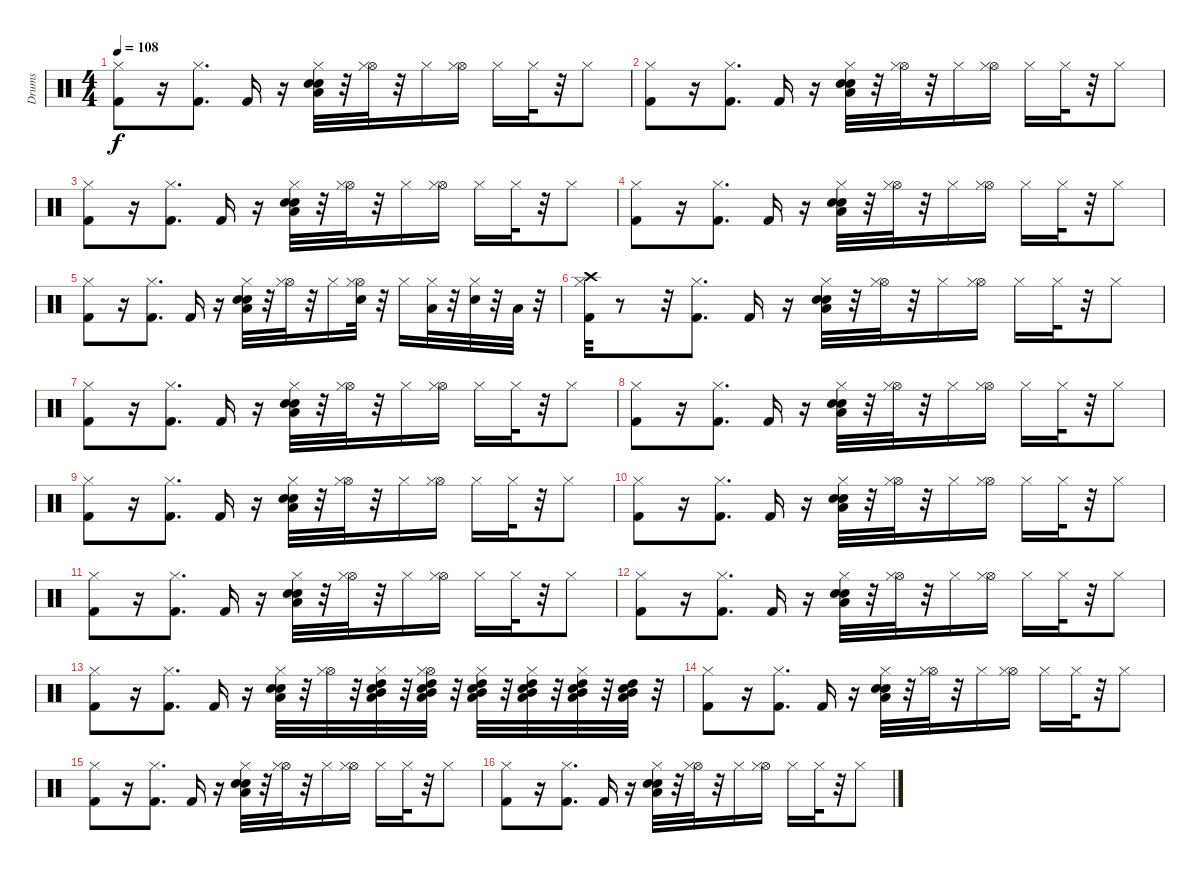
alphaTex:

\track ("Drums" "Drums") {instrument percussion}
\staff {score}
\articulation defaults
\ts (4 4)
\tempo 108
\clef neutral
\ks c
("Hi-Hat (closed)" "Kick (hit) 2").8{dy f} r.16 ("Kick (hit) 2" "Hi-Hat (closed)").8{d} "Kick (hit) 2".16 r.16 ("Low Floor Tom (hit)" "Electric Snare (hit)" "Snare (hit) 2" "Hi-Hat (closed)").32 r.32 ("Hi-Hat (open)" "Hi-Hat (closed)").32 r.32 "Hi-Hat (closed)".16 ("Hi-Hat (open)" "Hi-Hat (closed)").16 "Hi-Hat (closed)".16 "Hi-Hat (closed)".32 r.32 "Hi-Hat (closed)".8 |
("Hi-Hat (closed)" "Kick (hit) 2").8 r.16 ("Kick (hit) 2" "Hi-Hat (closed)").8{d} "Kick (hit) 2".16 r.16 ("Low Floor Tom (hit)" "Electric Snare (hit)" "Snare (hit) 2" "Hi-Hat (closed)").32 r.32 ("Hi-Hat (open)" "Hi-Hat (closed)").32 r.32 "Hi-Hat (closed)".16 ("Hi-Hat (open)" "Hi-Hat (closed)").16 "Hi-Hat (closed)".16 "Hi-Hat (closed)".32 r.32 "Hi-Hat (closed)".8 |
("Hi-Hat (closed)" "Kick (hit) 2").8 r.16 ("Kick (hit) 2" "Hi-Hat (closed)").8{d} "Kick (hit) 2".16 r.16 ("Low Floor Tom (hit)" "Electric Snare (hit)" "Snare (hit) 2" "Hi-Hat (closed)").32 r.32 ("Hi-Hat (open)" "Hi-Hat (closed)").32 r.32 "Hi-Hat (closed)".16 ("Hi-Hat (open)" "Hi-Hat (closed)").16 "Hi-Hat (closed)".16 "Hi-Hat (closed)".32 r.32 "Hi-Hat (closed)".8 |
("Hi-Hat (closed)" "Kick (hit) 2").8 r.16 ("Kick (hit) 2" "Hi-Hat (closed)").8{d} "Kick (hit) 2".16 r.16 ("Low Floor Tom (hit)" "Electric Snare (hit)" "Snare (hit) 2" "Hi-Hat (closed)").32 r.32 ("Hi-Hat (open)" "Hi-Hat (closed)").32 r.32 "Hi-Hat (closed)".16 ("Hi-Hat (open)" "Hi-Hat (closed)").16 "Hi-Hat (closed)".16 "Hi-Hat (closed)".32 r.32 "Hi-Hat (closed)".8 |
("Hi-Hat (closed)" "Kick (hit) 2").8 r.16 ("Kick (hit) 2" "Hi-Hat (closed)").8{d} "Kick (hit) 2".16 r.16 ("Low Floor Tom (hit)" "Electric Snare (hit)" "Snare (hit) 2" "Hi-Hat (closed)").32 r.32 ("Hi-Hat (open)" "Hi-Hat (closed)").32 r.32 "Hi-Hat (closed)".16 ("Hi-Hat (open)" "Hi-Hat (closed)" "Electric Snare (hit)").32 r.32 "Hi-Hat (closed)".16 ("Low Floor Tom (hit)" "Hi-Hat (closed)").32 r.32 ("Hi-Hat (closed)" "Electric Snare (hit)").32 r.32 "Low Floor Tom (hit)".32 r.32 |
("Hi-Hat (closed)" "Kick (hit) 2" "Crash high (hit)").32 r.8 r.32 ("Kick (hit) 2" "Hi-Hat (closed)").8{d} "Kick (hit) 2".16 r.16 ("Low Floor Tom (hit)" "Electric Snare (hit)" "Snare (hit) 2" "Hi-Hat (closed)").32 r.32 ("Hi-Hat (open)" "Hi-Hat (closed)").32 r.32 "Hi-Hat (closed)".16 ("Hi-Hat (open)" "Hi-Hat (closed)").16 "Hi-Hat (closed)".16 "Hi-Hat (closed)".32 r.32 "Hi-Hat (closed)".8 |
("Hi-Hat (closed)" "Kick (hit) 2").8 r.16 ("Kick (hit) 2" "Hi-Hat (closed)").8{d} "Kick (hit) 2".16 r.16 ("Low Floor Tom (hit)" "Electric Snare (hit)" "Snare (hit) 2" "Hi-Hat (closed)").32 r.32 ("Hi-Hat (open)" "Hi-Hat (closed)").32 r.32 "Hi-Hat (closed)".16 ("Hi-Hat (open)" "Hi-Hat (closed)").16 "Hi-Hat (closed)".16 "Hi-Hat (closed)".32 r.32 "Hi-Hat (closed)".8 |
("Hi-Hat (closed)" "Kick (hit) 2").8 r.16 ("Kick (hit) 2" "Hi-Hat (closed)").8{d} "Kick (hit) 2".16 r.16 ("Low Floor Tom (hit)" "Electric Snare (hit)" "Snare (hit) 2" "Hi-Hat (closed)").32 r.32 ("Hi-Hat (open)" "Hi-Hat (closed)").32 r.32 "Hi-Hat (closed)".16 ("Hi-Hat (open)" "Hi-Hat (closed)").16 "Hi-Hat (closed)".16 "Hi-Hat (closed)".32 r.32 "Hi-Hat (closed)".8 |
("Hi-Hat (closed)" "Kick (hit) 2").8 r.16 ("Kick (hit) 2" "Hi-Hat (closed)").8{d} "Kick (hit) 2".16 r.16 ("Low Floor Tom (hit)" "Electric Snare (hit)" "Snare (hit) 2" "Hi-Hat (closed)").32 r.32 ("Hi-Hat (open)" "Hi-Hat (closed)").32 r.32 "Hi-Hat (closed)".16 ("Hi-Hat (open)" "Hi-Hat (closed)").16 "Hi-Hat (closed)".16 "Hi-Hat (closed)".32 r.32 "Hi-Hat (closed)".8 |
("Hi-Hat (closed)" "Kick (hit) 2").8 r.16 ("Kick (hit) 2" "Hi-Hat (closed)").8{d} "Kick (hit) 2".16 r.16 ("Low Floor Tom (hit)" "Electric Snare (hit)" "Snare (hit) 2" "Hi-Hat (closed)").32 r.32 ("Hi-Hat (open)" "Hi-Hat (closed)").32 r.32 "Hi-Hat (closed)".16 ("Hi-Hat (open)" "Hi-Hat (closed)").16 "Hi-Hat (closed)".16 "Hi-Hat (closed)".32 r.32 "Hi-Hat (closed)".8 |
("Hi-Hat (closed)" "Kick (hit) 2").8 r.16 ("Kick (hit) 2" "Hi-Hat (closed)").8{d} "Kick (hit) 2".16 r.16 ("Low Floor Tom (hit)" "Electric Snare (hit)" "Snare (hit) 2" "Hi-Hat (closed)").32 r.32 ("Hi-Hat (open)" "Hi-Hat (closed)").32 r.32 "Hi-Hat (closed)".16 ("Hi-Hat (open)" "Hi-Hat (closed)").16 "Hi-Hat (closed)".16 "Hi-Hat (closed)".32 r.32 "Hi-Hat (closed)".8 |
("Hi-Hat (closed)" "Kick (hit) 2").8 r.16 ("Kick (hit) 2" "Hi-Hat (closed)").8{d} "Kick (hit) 2".16 r.16 ("Low Floor Tom (hit)" "Electric Snare (hit)" "Snare (hit) 2" "Hi-Hat (closed)").32 r.32 ("Hi-Hat (open)" "Hi-Hat (closed)").32 r.32 "Hi-Hat (closed)".16 ("Hi-Hat (open)" "Hi-Hat (closed)").16 "Hi-Hat (closed)".16 "Hi-Hat (closed)".32 r.32 "Hi-Hat (closed)".8 |
("Hi-Hat (closed)" "Kick (hit) 2").8 r.16 ("Kick (hit) 2" "Hi-Hat (closed)").8{d} "Kick (hit) 2".16 r.16 ("Low Floor Tom (hit)" "Electric Snare (hit)" "Snare (hit) 2" "Hi-Hat (closed)").32 r.32 ("Hi-Hat (open)" "Hi-Hat (closed)").32 r.32 ("Hi-Hat (closed)" "Electric Snare (hit)" "Mid Tom (hit)" "High Tom (hit)" "Low Tom (hit)").32 r.32 ("Hi-Hat (open)" "Hi-Hat (closed)" "Electric Snare (hit)" "Mid Tom (hit)" "High Tom (hit)" "Low Tom (hit)").32 r.32 ("Hi-Hat (closed)" "Electric Snare (hit)" "High Tom (hit)" "Mid Tom (hit)" "Low Tom (hit)").32 r.32 ("Electric Snare (hit)" "High Tom (hit)" "Mid Tom (hit)" "Low Tom (hit)" "Hi-Hat (closed)").32 r.32 ("Hi-Hat (closed)" "Electric Snare (hit)" "High Tom (hit)" "Mid Tom (hit)" "Low Tom (hit)").32 r.32 ("Electric Snare (hit)" "High Tom (hit)" "Mid Tom (hit)" "Low Tom (hit)").32 r.32 |
("Hi-Hat (closed)" "Kick (hit) 2").8 r.16 ("Kick (hit) 2" "Hi-Hat (closed)").8{d} "Kick (hit) 2".16 r.16 ("Low Floor Tom (hit)" "Electric Snare (hit)" "Snare (hit) 2" "Hi-Hat (closed)").32 r.32 ("Hi-Hat (open)" "Hi-Hat (closed)").32 r.32 "Hi-Hat (closed)".16 ("Hi-Hat (open)" "Hi-Hat (closed)").16 "Hi-Hat (closed)".16 "Hi-Hat (closed)".32 r.32 "Hi-Hat (closed)".8 |
("Hi-Hat (closed)" "Kick (hit) 2").8 r.16 ("Kick (hit) 2" "Hi-Hat (closed)").8{d} "Kick (hit) 2".16 r.16 ("Low Floor Tom (hit)" "Electric Snare (hit)" "Snare (hit) 2" "Hi-Hat (closed)").32 r.32 ("Hi-Hat (open)" "Hi-Hat (closed)").32 r.32 "Hi-Hat (closed)".16 ("Hi-Hat (open)" "Hi-Hat (closed)").16 "Hi-Hat (closed)".16 "Hi-Hat (closed)".32 r.32 "Hi-Hat (closed)".8 |
("Hi-Hat (closed)" "Kick (hit) 2").8 r.16 ("Kick (hit) 2" "Hi-Hat (closed)").8{d} "Kick (hit) 2".16 r.16 ("Low Floor Tom (hit)" "Electric Snare (hit)" "Snare (hit) 2" "Hi-Hat (closed)").32 r.32 ("Hi-Hat (open)" "Hi-Hat (closed)").32 r.32 "Hi-Hat (closed)".16 ("Hi-Hat (open)" "Hi-Hat (closed)").16 "Hi-Hat (closed)".16 "Hi-Hat (closed)".32 r.32 "Hi-Hat (closed)".8
